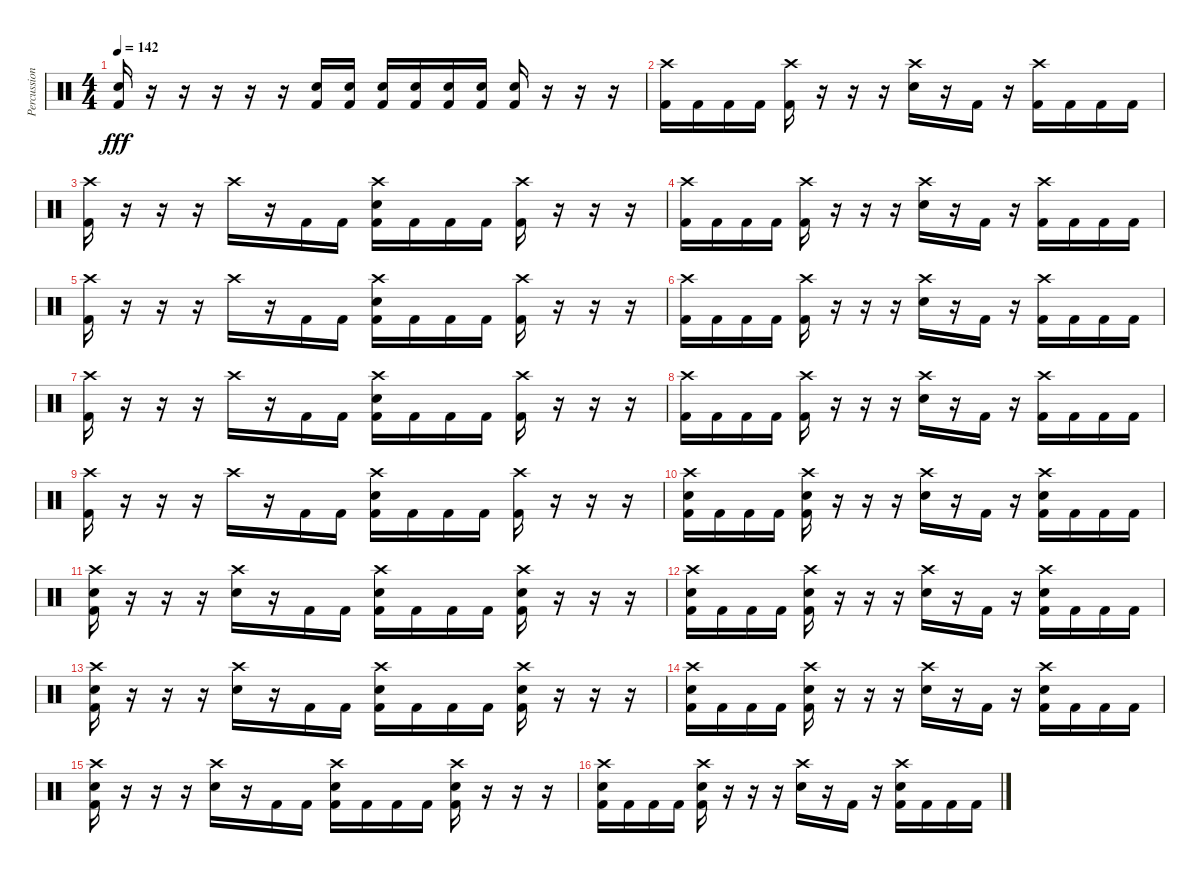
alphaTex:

\track ("Percussion" "Percussion") {instrument percussion}
\staff {score}
\articulation defaults
\ts (4 4)
\tempo 142
\clef neutral
\ks c
("Electric Snare (hit)" "Kick (hit) 2").16{dy fff} r.16 r.16 r.16 r.16 r.16 ("Electric Snare (hit)" "Kick (hit) 2").16 ("Electric Snare (hit)" "Kick (hit) 2").16 ("Electric Snare (hit)" "Kick (hit) 2").16 ("Electric Snare (hit)" "Kick (hit) 2").16 ("Electric Snare (hit)" "Kick (hit) 2").16 ("Electric Snare (hit)" "Kick (hit) 2").16 ("Electric Snare (hit)" "Kick (hit) 2").16 r.16 r.16 r.16 |
("Crash high (hit)" "Kick (hit) 2").16 "Kick (hit) 2".16 "Kick (hit) 2".16 "Kick (hit) 2".16 ("Crash high (hit)" "Kick (hit) 2").16 r.16 r.16 r.16 ("Crash high (hit)" "Electric Snare (hit)").16 r.16 "Kick (hit) 2".16 r.16 ("Crash high (hit)" "Kick (hit) 2").16 "Kick (hit) 2".16 "Kick (hit) 2".16 "Kick (hit) 2".16 |
("Crash high (hit)" "Kick (hit) 2").16 r.16 r.16 r.16 "Crash high (hit)".16 r.16 "Kick (hit) 2".16 "Kick (hit) 2".16 ("Crash high (hit)" "Electric Snare (hit)" "Kick (hit) 2").16 "Kick (hit) 2".16 "Kick (hit) 2".16 "Kick (hit) 2".16 ("Crash high (hit)" "Kick (hit) 2").16 r.16 r.16 r.16 |
("Crash high (hit)" "Kick (hit) 2").16 "Kick (hit) 2".16 "Kick (hit) 2".16 "Kick (hit) 2".16 ("Crash high (hit)" "Kick (hit) 2").16 r.16 r.16 r.16 ("Crash high (hit)" "Electric Snare (hit)").16 r.16 "Kick (hit) 2".16 r.16 ("Crash high (hit)" "Kick (hit) 2").16 "Kick (hit) 2".16 "Kick (hit) 2".16 "Kick (hit) 2".16 |
("Crash high (hit)" "Kick (hit) 2").16 r.16 r.16 r.16 "Crash high (hit)".16 r.16 "Kick (hit) 2".16 "Kick (hit) 2".16 ("Crash high (hit)" "Electric Snare (hit)" "Kick (hit) 2").16 "Kick (hit) 2".16 "Kick (hit) 2".16 "Kick (hit) 2".16 ("Crash high (hit)" "Kick (hit) 2").16 r.16 r.16 r.16 |
("Crash high (hit)" "Kick (hit) 2").16 "Kick (hit) 2".16 "Kick (hit) 2".16 "Kick (hit) 2".16 ("Crash high (hit)" "Kick (hit) 2").16 r.16 r.16 r.16 ("Crash high (hit)" "Electric Snare (hit)").16 r.16 "Kick (hit) 2".16 r.16 ("Crash high (hit)" "Kick (hit) 2").16 "Kick (hit) 2".16 "Kick (hit) 2".16 "Kick (hit) 2".16 |
("Crash high (hit)" "Kick (hit) 2").16 r.16 r.16 r.16 "Crash high (hit)".16 r.16 "Kick (hit) 2".16 "Kick (hit) 2".16 ("Crash high (hit)" "Electric Snare (hit)" "Kick (hit) 2").16 "Kick (hit) 2".16 "Kick (hit) 2".16 "Kick (hit) 2".16 ("Crash high (hit)" "Kick (hit) 2").16 r.16 r.16 r.16 |
("Crash high (hit)" "Kick (hit) 2").16 "Kick (hit) 2".16 "Kick (hit) 2".16 "Kick (hit) 2".16 ("Crash high (hit)" "Kick (hit) 2").16 r.16 r.16 r.16 ("Crash high (hit)" "Electric Snare (hit)").16 r.16 "Kick (hit) 2".16 r.16 ("Crash high (hit)" "Kick (hit) 2").16 "Kick (hit) 2".16 "Kick (hit) 2".16 "Kick (hit) 2".16 |
("Crash high (hit)" "Kick (hit) 2").16 r.16 r.16 r.16 "Crash high (hit)".16 r.16 "Kick (hit) 2".16 "Kick (hit) 2".16 ("Crash high (hit)" "Electric Snare (hit)" "Kick (hit) 2").16 "Kick (hit) 2".16 "Kick (hit) 2".16 "Kick (hit) 2".16 ("Crash high (hit)" "Kick (hit) 2").16 r.16 r.16 r.16 |
("Crash high (hit)" "Electric Snare (hit)" "Kick (hit) 2").16 "Kick (hit) 2".16 "Kick (hit) 2".16 "Kick (hit) 2".16 ("Crash high (hit)" "Electric Snare (hit)" "Kick (hit) 2").16 r.16 r.16 r.16 ("Crash high (hit)" "Electric Snare (hit)").16 r.16 "Kick (hit) 2".16 r.16 ("Crash high (hit)" "Electric Snare (hit)" "Kick (hit) 2").16 "Kick (hit) 2".16 "Kick (hit) 2".16 "Kick (hit) 2".16 |
("Crash high (hit)" "Electric Snare (hit)" "Kick (hit) 2").16 r.16 r.16 r.16 ("Crash high (hit)" "Electric Snare (hit)").16 r.16 "Kick (hit) 2".16 "Kick (hit) 2".16 ("Crash high (hit)" "Electric Snare (hit)" "Kick (hit) 2").16 "Kick (hit) 2".16 "Kick (hit) 2".16 "Kick (hit) 2".16 ("Crash high (hit)" "Electric Snare (hit)" "Kick (hit) 2").16 r.16 r.16 r.16 |
("Crash high (hit)" "Electric Snare (hit)" "Kick (hit) 2").16 "Kick (hit) 2".16 "Kick (hit) 2".16 "Kick (hit) 2".16 ("Crash high (hit)" "Electric Snare (hit)" "Kick (hit) 2").16 r.16 r.16 r.16 ("Crash high (hit)" "Electric Snare (hit)").16 r.16 "Kick (hit) 2".16 r.16 ("Crash high (hit)" "Electric Snare (hit)" "Kick (hit) 2").16 "Kick (hit) 2".16 "Kick (hit) 2".16 "Kick (hit) 2".16 |
("Crash high (hit)" "Electric Snare (hit)" "Kick (hit) 2").16 r.16 r.16 r.16 ("Crash high (hit)" "Electric Snare (hit)").16 r.16 "Kick (hit) 2".16 "Kick (hit) 2".16 ("Crash high (hit)" "Electric Snare (hit)" "Kick (hit) 2").16 "Kick (hit) 2".16 "Kick (hit) 2".16 "Kick (hit) 2".16 ("Crash high (hit)" "Electric Snare (hit)" "Kick (hit) 2").16 r.16 r.16 r.16 |
("Crash high (hit)" "Electric Snare (hit)" "Kick (hit) 2").16 "Kick (hit) 2".16 "Kick (hit) 2".16 "Kick (hit) 2".16 ("Crash high (hit)" "Electric Snare (hit)" "Kick (hit) 2").16 r.16 r.16 r.16 ("Crash high (hit)" "Electric Snare (hit)").16 r.16 "Kick (hit) 2".16 r.16 ("Crash high (hit)" "Electric Snare (hit)" "Kick (hit) 2").16 "Kick (hit) 2".16 "Kick (hit) 2".16 "Kick (hit) 2".16 |
("Crash high (hit)" "Electric Snare (hit)" "Kick (hit) 2").16 r.16 r.16 r.16 ("Crash high (hit)" "Electric Snare (hit)").16 r.16 "Kick (hit) 2".16 "Kick (hit) 2".16 ("Crash high (hit)" "Electric Snare (hit)" "Kick (hit) 2").16 "Kick (hit) 2".16 "Kick (hit) 2".16 "Kick (hit) 2".16 ("Crash high (hit)" "Electric Snare (hit)" "Kick (hit) 2").16 r.16 r.16 r.16 |
("Crash high (hit)" "Electric Snare (hit)" "Kick (hit) 2").16 "Kick (hit) 2".16 "Kick (hit) 2".16 "Kick (hit) 2".16 ("Crash high (hit)" "Electric Snare (hit)" "Kick (hit) 2").16 r.16 r.16 r.16 ("Crash high (hit)" "Electric Snare (hit)").16 r.16 "Kick (hit) 2".16 r.16 ("Crash high (hit)" "Electric Snare (hit)" "Kick (hit) 2").16 "Kick (hit) 2".16 "Kick (hit) 2".16 "Kick (hit) 2".16
